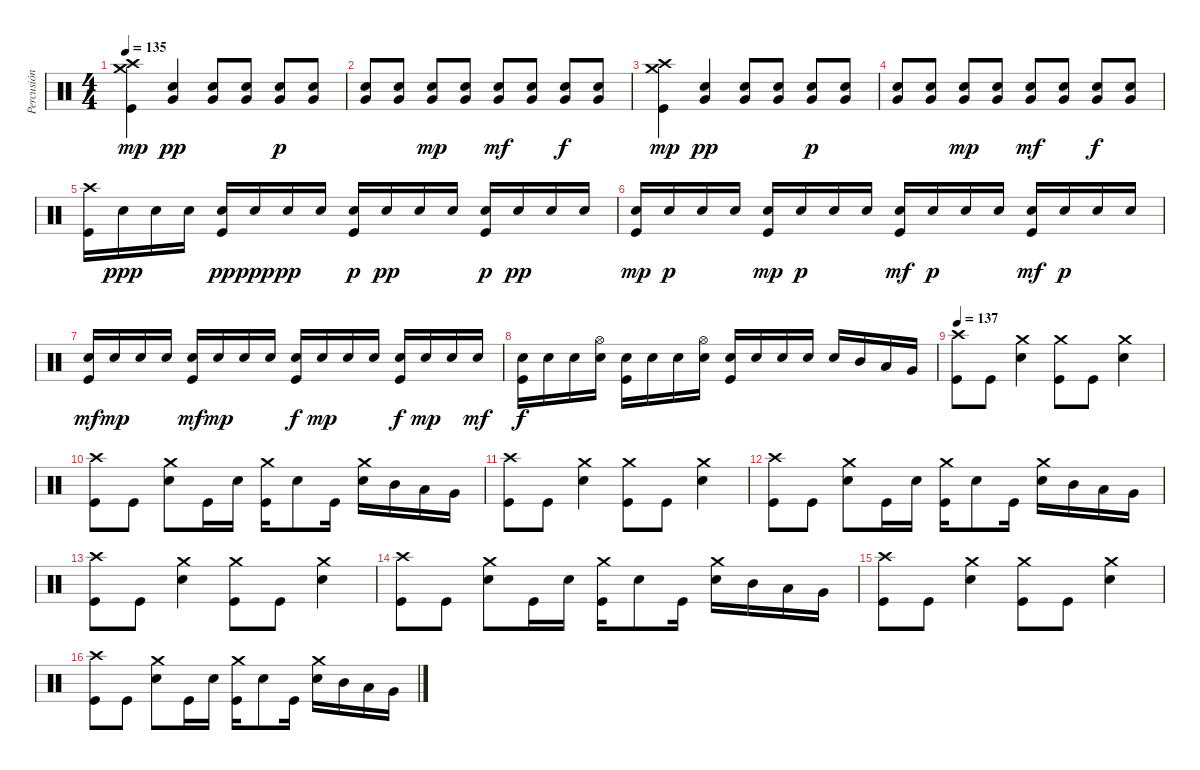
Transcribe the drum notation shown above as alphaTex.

\track ("Percusión" "Percusión") {instrument percussion}
\staff {score}
\articulation defaults
\ts (4 4)
\tempo 135
\clef neutral
\ks c
("Crash high (hit)" "Crash medium (hit)" "Kick (hit)").4{dy mp} ("Very Low Tom (hit)" "Snare (hit) 2").4{dy pp} ("Very Low Tom (hit)" "Snare (hit) 2").8 ("Very Low Tom (hit)" "Snare (hit) 2").8 ("Very Low Tom (hit)" "Snare (hit) 2").8{dy p} ("Very Low Tom (hit)" "Snare (hit) 2").8 |
("Very Low Tom (hit)" "Snare (hit) 2").8 ("Very Low Tom (hit)" "Snare (hit) 2").8 ("Very Low Tom (hit)" "Snare (hit) 2").8{dy mp} ("Very Low Tom (hit)" "Snare (hit) 2").8 ("Very Low Tom (hit)" "Snare (hit) 2").8{dy mf} ("Very Low Tom (hit)" "Snare (hit) 2").8 ("Very Low Tom (hit)" "Snare (hit) 2").8{dy f} ("Very Low Tom (hit)" "Snare (hit) 2").8 |
("Crash high (hit)" "Crash medium (hit)" "Kick (hit)").4{dy mp} ("Very Low Tom (hit)" "Snare (hit) 2").4{dy pp} ("Very Low Tom (hit)" "Snare (hit) 2").8 ("Very Low Tom (hit)" "Snare (hit) 2").8 ("Very Low Tom (hit)" "Snare (hit) 2").8{dy p} ("Very Low Tom (hit)" "Snare (hit) 2").8 |
("Very Low Tom (hit)" "Snare (hit) 2").8 ("Very Low Tom (hit)" "Snare (hit) 2").8 ("Very Low Tom (hit)" "Snare (hit) 2").8{dy mp} ("Very Low Tom (hit)" "Snare (hit) 2").8 ("Very Low Tom (hit)" "Snare (hit) 2").8{dy mf} ("Very Low Tom (hit)" "Snare (hit) 2").8 ("Very Low Tom (hit)" "Snare (hit) 2").8{dy f} ("Very Low Tom (hit)" "Snare (hit) 2").8 |
("Crash high (hit)" "Kick (hit)").16 "Snare (hit) 2".16{dy ppp} "Snare (hit) 2".16 "Snare (hit) 2".16 ("Snare (hit) 2" "Kick (hit)").16{dy pp} "Snare (hit) 2".16{dy ppp} "Snare (hit) 2".16{dy pp} "Snare (hit) 2".16 ("Snare (hit) 2" "Kick (hit)").16{dy p} "Snare (hit) 2".16{dy pp} "Snare (hit) 2".16 "Snare (hit) 2".16 ("Snare (hit) 2" "Kick (hit)").16{dy p} "Snare (hit) 2".16{dy pp} "Snare (hit) 2".16 "Snare (hit) 2".16 |
("Snare (hit) 2" "Kick (hit)").16{dy mp} "Snare (hit) 2".16{dy p} "Snare (hit) 2".16 "Snare (hit) 2".16 ("Snare (hit) 2" "Kick (hit)").16{dy mp} "Snare (hit) 2".16{dy p} "Snare (hit) 2".16 "Snare (hit) 2".16 ("Snare (hit) 2" "Kick (hit)").16{dy mf} "Snare (hit) 2".16{dy p} "Snare (hit) 2".16 "Snare (hit) 2".16 ("Snare (hit) 2" "Kick (hit)").16{dy mf} "Snare (hit) 2".16{dy p} "Snare (hit) 2".16 "Snare (hit) 2".16 |
("Snare (hit) 2" "Kick (hit)").16{dy mf} "Snare (hit) 2".16{dy mp} "Snare (hit) 2".16 "Snare (hit) 2".16 ("Snare (hit) 2" "Kick (hit)").16{dy mf} "Snare (hit) 2".16{dy mp} "Snare (hit) 2".16 "Snare (hit) 2".16 ("Snare (hit) 2" "Kick (hit)").16{dy f} "Snare (hit) 2".16{dy mp} "Snare (hit) 2".16 "Snare (hit) 2".16 ("Snare (hit) 2" "Kick (hit)").16{dy f} "Snare (hit) 2".16{dy mp} "Snare (hit) 2".16 "Snare (hit) 2".16{dy mf} |
("Snare (hit) 2" "Kick (hit)").16{dy f} "Snare (hit) 2".16 "Snare (hit) 2".16 ("Hi-Hat (open)" "Snare (hit) 2").16 ("Snare (hit) 2" "Kick (hit)").16 "Snare (hit) 2".16 "Snare (hit) 2".16 ("Hi-Hat (open)" "Snare (hit) 2").16 ("Snare (hit) 2" "Kick (hit)").16 "Snare (hit) 2".16 "Snare (hit) 2".16 "Snare (hit) 2".16 "Snare (hit) 2".16 "Mid Tom (hit)".16 "Low Tom (hit)".16 "Very Low Tom (hit)".16 |
\tempo 137
("Crash high (hit)" "Kick (hit)").8 "Kick (hit)".8 ("Crash medium (hit)" "Snare (hit) 2").4 ("Crash medium (hit)" "Kick (hit)").8 "Kick (hit)".8 ("Crash medium (hit)" "Snare (hit) 2").4 |
("Crash high (hit)" "Kick (hit)").8 "Kick (hit)".8 ("Crash medium (hit)" "Snare (hit) 2").8 "Kick (hit)".16 "Snare (hit) 2".16 ("Crash medium (hit)" "Kick (hit)").16 "Snare (hit) 2".8 "Kick (hit)".16 ("Crash medium (hit)" "Snare (hit) 2").16 "Mid Tom (hit)".16 "Low Tom (hit)".16 "Very Low Tom (hit)".16 |
("Crash high (hit)" "Kick (hit)").8 "Kick (hit)".8 ("Crash medium (hit)" "Snare (hit) 2").4 ("Crash medium (hit)" "Kick (hit)").8 "Kick (hit)".8 ("Crash medium (hit)" "Snare (hit) 2").4 |
("Crash high (hit)" "Kick (hit)").8 "Kick (hit)".8 ("Crash medium (hit)" "Snare (hit) 2").8 "Kick (hit)".16 "Snare (hit) 2".16 ("Crash medium (hit)" "Kick (hit)").16 "Snare (hit) 2".8 "Kick (hit)".16 ("Crash medium (hit)" "Snare (hit) 2").16 "Mid Tom (hit)".16 "Low Tom (hit)".16 "Very Low Tom (hit)".16 |
("Crash high (hit)" "Kick (hit)").8 "Kick (hit)".8 ("Crash medium (hit)" "Snare (hit) 2").4 ("Crash medium (hit)" "Kick (hit)").8 "Kick (hit)".8 ("Crash medium (hit)" "Snare (hit) 2").4 |
("Crash high (hit)" "Kick (hit)").8 "Kick (hit)".8 ("Crash medium (hit)" "Snare (hit) 2").8 "Kick (hit)".16 "Snare (hit) 2".16 ("Crash medium (hit)" "Kick (hit)").16 "Snare (hit) 2".8 "Kick (hit)".16 ("Crash medium (hit)" "Snare (hit) 2").16 "Mid Tom (hit)".16 "Low Tom (hit)".16 "Very Low Tom (hit)".16 |
("Crash high (hit)" "Kick (hit)").8 "Kick (hit)".8 ("Crash medium (hit)" "Snare (hit) 2").4 ("Crash medium (hit)" "Kick (hit)").8 "Kick (hit)".8 ("Crash medium (hit)" "Snare (hit) 2").4 |
("Crash high (hit)" "Kick (hit)").8 "Kick (hit)".8 ("Crash medium (hit)" "Snare (hit) 2").8 "Kick (hit)".16 "Snare (hit) 2".16 ("Crash medium (hit)" "Kick (hit)").16 "Snare (hit) 2".8 "Kick (hit)".16 ("Crash medium (hit)" "Snare (hit) 2").16 "Mid Tom (hit)".16 "Low Tom (hit)".16 "Very Low Tom (hit)".16
